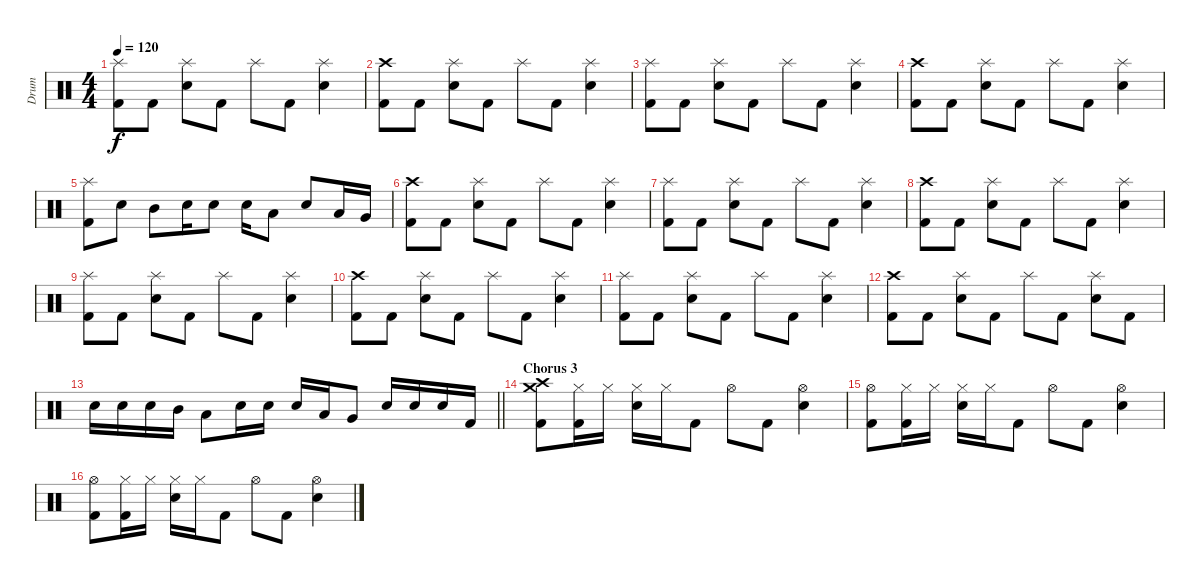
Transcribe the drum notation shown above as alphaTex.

\track ("Drum" "Drum") {instrument percussion}
\staff {score}
\articulation defaults
\ts (4 4)
\tempo 120
\clef neutral
\ks c
("Splash (hit)" "Kick (hit) 2").8{dy f} "Kick (hit) 2".8 ("Splash (hit)" "Electric Snare (hit)").8 "Kick (hit) 2".8 "Splash (hit)".8 "Kick (hit) 2".8 ("Splash (hit)" "Electric Snare (hit)").4 |
("Crash high (hit)" "Kick (hit) 2").8 "Kick (hit) 2".8 ("Splash (hit)" "Electric Snare (hit)").8 "Kick (hit) 2".8 "Splash (hit)".8 "Kick (hit) 2".8 ("Splash (hit)" "Electric Snare (hit)").4 |
("Splash (hit)" "Kick (hit) 2").8 "Kick (hit) 2".8 ("Splash (hit)" "Electric Snare (hit)").8 "Kick (hit) 2".8 "Splash (hit)".8 "Kick (hit) 2".8 ("Splash (hit)" "Electric Snare (hit)").4 |
("Crash high (hit)" "Kick (hit) 2").8 "Kick (hit) 2".8 ("Splash (hit)" "Electric Snare (hit)").8 "Kick (hit) 2".8 "Splash (hit)".8 "Kick (hit) 2".8 ("Splash (hit)" "Electric Snare (hit)").4 |
("Splash (hit)" "Kick (hit) 2").8 "Electric Snare (hit)".8 "Mid Tom (hit)".8 "Electric Snare (hit)".16 "Electric Snare (hit)".8 "Electric Snare (hit)".16 "Low Tom (hit)".8 "Electric Snare (hit)".8 "Low Tom (hit)".16 "Very Low Tom (hit)".16 |
("Crash high (hit)" "Kick (hit) 2").8 "Kick (hit) 2".8 ("Splash (hit)" "Electric Snare (hit)").8 "Kick (hit) 2".8 "Splash (hit)".8 "Kick (hit) 2".8 ("Splash (hit)" "Electric Snare (hit)").4 |
("Splash (hit)" "Kick (hit) 2").8 "Kick (hit) 2".8 ("Splash (hit)" "Electric Snare (hit)").8 "Kick (hit) 2".8 "Splash (hit)".8 "Kick (hit) 2".8 ("Splash (hit)" "Electric Snare (hit)").4 |
("Crash high (hit)" "Kick (hit) 2").8 "Kick (hit) 2".8 ("Splash (hit)" "Electric Snare (hit)").8 "Kick (hit) 2".8 "Splash (hit)".8 "Kick (hit) 2".8 ("Splash (hit)" "Electric Snare (hit)").4 |
("Splash (hit)" "Kick (hit) 2").8 "Kick (hit) 2".8 ("Splash (hit)" "Electric Snare (hit)").8 "Kick (hit) 2".8 "Splash (hit)".8 "Kick (hit) 2".8 ("Splash (hit)" "Electric Snare (hit)").4 |
("Crash high (hit)" "Kick (hit) 2").8 "Kick (hit) 2".8 ("Splash (hit)" "Electric Snare (hit)").8 "Kick (hit) 2".8 "Splash (hit)".8 "Kick (hit) 2".8 ("Splash (hit)" "Electric Snare (hit)").4 |
("Splash (hit)" "Kick (hit) 2").8 "Kick (hit) 2".8 ("Splash (hit)" "Electric Snare (hit)").8 "Kick (hit) 2".8 "Splash (hit)".8 "Kick (hit) 2".8 ("Splash (hit)" "Electric Snare (hit)").4 |
("Crash high (hit)" "Kick (hit) 2").8 "Kick (hit) 2".8 ("Splash (hit)" "Electric Snare (hit)").8 "Kick (hit) 2".8 "Splash (hit)".8 "Kick (hit) 2".8 ("Splash (hit)" "Electric Snare (hit)").8 "Kick (hit) 2".8 |
\barLineRight lightlight "Electric Snare (hit)".16 "Electric Snare (hit)".16 "Electric Snare (hit)".16 "Mid Tom (hit)".16 "Low Tom (hit)".8 "Electric Snare (hit)".16 "Electric Snare (hit)".16 "Electric Snare (hit)".16 "Low Tom (hit)".16 "Very Low Tom (hit)".8 "Electric Snare (hit)".16 "Electric Snare (hit)".16 "Electric Snare (hit)".16 "Kick (hit) 2".16
|
\section ("" "Chorus 3")
("Crash medium (hit)" "Crash high (hit)" "Kick (hit) 2").8 ("Hi-Hat (closed)" "Kick (hit) 2").16 "Hi-Hat (closed)".16 ("Hi-Hat (closed)" "Electric Snare (hit)").16 "Hi-Hat (closed)".16 "Kick (hit) 2".8 "Hi-Hat (open)".8 "Kick (hit) 2".8 ("Hi-Hat (open)" "Electric Snare (hit)").4 |
("Hi-Hat (open)" "Kick (hit) 2").8 ("Hi-Hat (closed)" "Kick (hit) 2").16 "Hi-Hat (closed)".16 ("Hi-Hat (closed)" "Electric Snare (hit)").16 "Hi-Hat (closed)".16 "Kick (hit) 2".8 "Hi-Hat (open)".8 "Kick (hit) 2".8 ("Hi-Hat (open)" "Electric Snare (hit)").4 |
("Hi-Hat (open)" "Kick (hit) 2").8 ("Hi-Hat (closed)" "Kick (hit) 2").16 "Hi-Hat (closed)".16 ("Hi-Hat (closed)" "Electric Snare (hit)").16 "Hi-Hat (closed)".16 "Kick (hit) 2".8 "Hi-Hat (open)".8 "Kick (hit) 2".8 ("Hi-Hat (open)" "Electric Snare (hit)").4
